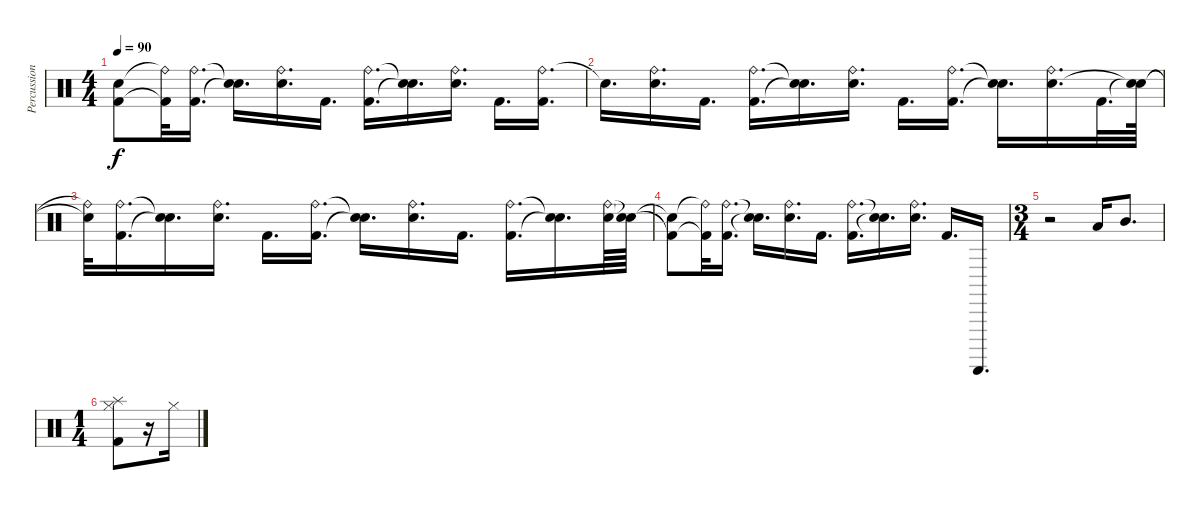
\track ("Percussion" "Percussion") {instrument percussion}
\staff {score}
\articulation defaults
\ts (4 4)
\tempo 90
\clef neutral
\ks c
("Snare (hit)"{t} "Kick (hit) 2"{t}).8{dy f} ("Ride (bell)"{t} "Kick (hit) 2"{t}).32 ("Ride (bell)" "Kick (hit) 2").16{d} ("Snare (hit)"{t} "Electric Snare (hit)"{t}).16{d} ("Ride (bell)" "Electric Snare (hit)").16{d} "Kick (hit) 2".16{d} ("Ride (bell)" "Kick (hit) 2").16{d} ("Snare (hit)"{t} "Snare (hit)"{t}).16{d} ("Ride (bell)" "Electric Snare (hit)").16{d} "Kick (hit) 2".16{d} ("Ride (bell)" "Kick (hit) 2").16{d} |
"Electric Snare (hit)"{t}.16{d} ("Ride (bell)" "Electric Snare (hit)").16{d} "Kick (hit) 2".16{d} ("Ride (bell)" "Kick (hit) 2").16{d} ("Snare (hit)"{t} "Electric Snare (hit)"{t}).16{d} ("Ride (bell)" "Electric Snare (hit)").16{d} "Kick (hit) 2".16{d} ("Ride (bell)" "Kick (hit) 2").16{d} ("Snare (hit)"{t} "Snare (hit)"{t}).16{d} ("Ride (bell)" "Electric Snare (hit)").16{d} "Kick (hit) 2".32{d} ("Snare (hit)"{t} "Snare (hit)"{t}).64 |
("Ride (bell)"{t} "Snare (hit)"{t}).32 ("Ride (bell)" "Kick (hit) 2").16{d} ("Snare (hit)"{t} "Snare (hit)"{t}).16{d} ("Ride (bell)" "Electric Snare (hit)").16{d} "Kick (hit) 2".16{d} ("Ride (bell)" "Kick (hit) 2").16{d} ("Snare (hit)"{t} "Snare (hit)"{t}).16{d} ("Ride (bell)" "Electric Snare (hit)").16{d} "Kick (hit) 2".16{d} ("Ride (bell)" "Kick (hit) 2").16{d} ("Snare (hit)"{t} "Snare (hit)"{t}).16{d} ("Ride (bell)" "Electric Snare (hit)").64 ("Snare (hit)"{t} "Snare (hit)"{t}).64 |
("Snare (hit)"{t} "Kick (hit) 2"{t}).8 ("Ride (bell)"{t} "Kick (hit) 2"{t}).32 ("Ride (bell)" "Kick (hit) 2").16{d} ("Snare (hit)"{t} "Electric Snare (hit)"{t}).16{d} ("Ride (bell)" "Electric Snare (hit)").16{d} "Kick (hit) 2".16{d} ("Ride (bell)" "Kick (hit) 2").16{d} ("Snare (hit)"{t} "Snare (hit)"{t}).16{d} ("Ride (bell)" "Electric Snare (hit)").16{d} "Kick (hit) 2".16{d} "Guiro (scrap-return)".16{d} |
\ts (3 4)
r.2 "Low Tom (hit)".16 "Mid Tom (hit)".8{d} |
\ts (1 4)
("Splash (hit)" "Hi-Hat (closed)" "Kick (hit) 2").8 r.16 "Hi-Hat (closed)".16
